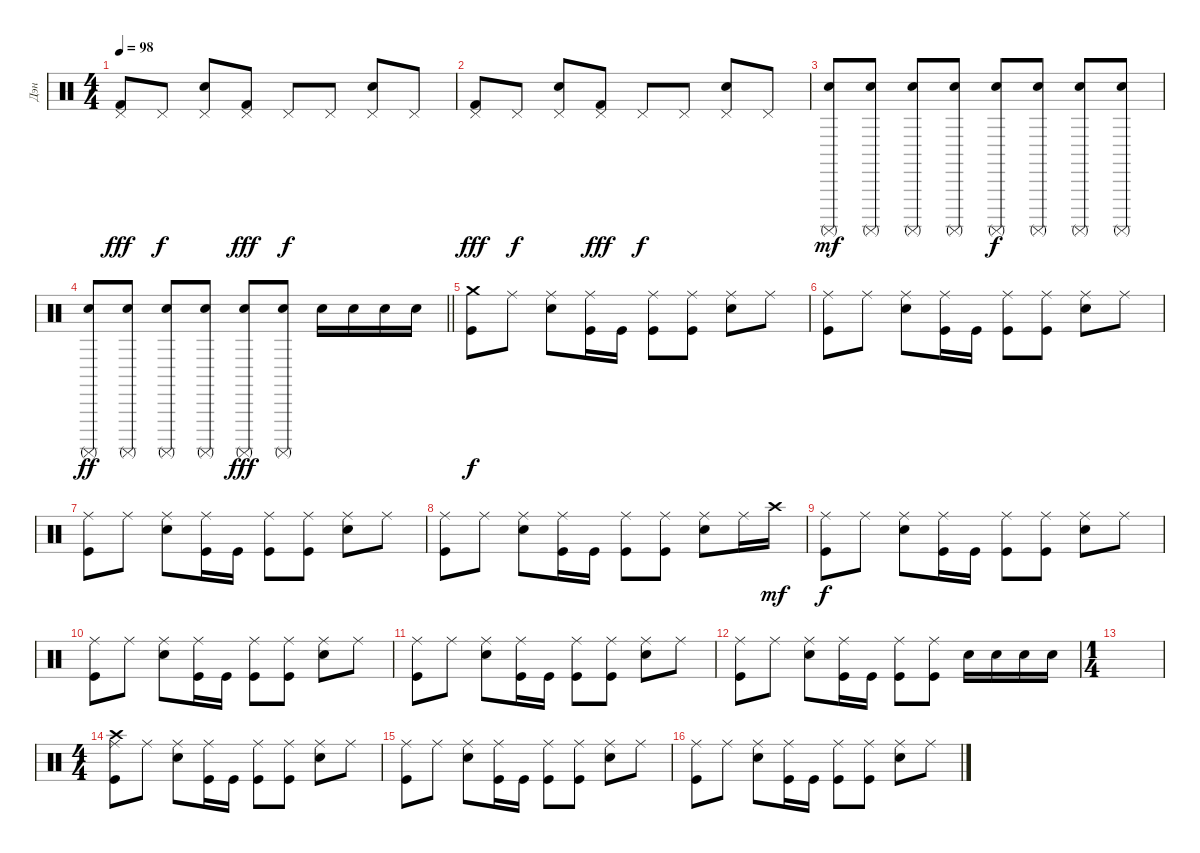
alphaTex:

\track ("Дэн" "Дэн") {instrument percussion}
\staff {score}
\articulation defaults
\ts (4 4)
\tempo 98
\clef neutral
\ks c
("Kick (hit) 2" "Pedal Hi-Hat (hit)").8{dy fff} "Pedal Hi-Hat (hit)".8{dy f} ("Electric Snare (hit)" "Pedal Hi-Hat (hit)").8 ("Kick (hit) 2" "Pedal Hi-Hat (hit)").8{dy fff} "Pedal Hi-Hat (hit)".8{dy f} "Pedal Hi-Hat (hit)".8 ("Electric Snare (hit)" "Pedal Hi-Hat (hit)").8 "Pedal Hi-Hat (hit)".8 |
("Kick (hit) 2" "Pedal Hi-Hat (hit)").8{dy fff} "Pedal Hi-Hat (hit)".8{dy f} ("Electric Snare (hit)" "Pedal Hi-Hat (hit)").8 ("Kick (hit) 2" "Pedal Hi-Hat (hit)").8{dy fff} "Pedal Hi-Hat (hit)".8{dy f} "Pedal Hi-Hat (hit)".8 ("Electric Snare (hit)" "Pedal Hi-Hat (hit)").8 "Pedal Hi-Hat (hit)".8 |
("Electric Snare (hit)" "Surdo (mute)").8{dy mf} ("Electric Snare (hit)" "Surdo (mute)").8 ("Electric Snare (hit)" "Surdo (mute)").8 ("Electric Snare (hit)" "Surdo (mute)").8 ("Electric Snare (hit)" "Surdo (mute)").8{dy f} ("Electric Snare (hit)" "Surdo (mute)").8 ("Electric Snare (hit)" "Surdo (mute)").8 ("Electric Snare (hit)" "Surdo (mute)").8 |
\barLineRight lightlight
("Electric Snare (hit)" "Surdo (mute)").8{dy ff} ("Electric Snare (hit)" "Surdo (mute)").8 ("Electric Snare (hit)" "Surdo (mute)").8 ("Electric Snare (hit)" "Surdo (mute)").8 ("Electric Snare (hit)" "Surdo (mute)").8{dy fff} ("Electric Snare (hit)" "Surdo (mute)").8 "Electric Snare (hit)".16 "Electric Snare (hit)".16 "Electric Snare (hit)".16 "Electric Snare (hit)".16 |
("Kick (hit)" "Crash medium (hit)").8{dy f} "Ride (middle)".8 ("Electric Snare (hit)" "Ride (middle)").8 ("Kick (hit)" "Ride (middle)").16 "Kick (hit)".16 ("Kick (hit)" "Ride (middle)").8 ("Kick (hit)" "Ride (middle)").8 ("Electric Snare (hit)" "Ride (middle)").8 "Ride (middle)".8 |
("Kick (hit)" "Ride (middle)").8 "Ride (middle)".8 ("Electric Snare (hit)" "Ride (middle)").8 ("Kick (hit)" "Ride (middle)").16 "Kick (hit)".16 ("Kick (hit)" "Ride (middle)").8 ("Kick (hit)" "Ride (middle)").8 ("Electric Snare (hit)" "Ride (middle)").8 "Ride (middle)".8 |
("Kick (hit)" "Ride (middle)").8 "Ride (middle)".8 ("Electric Snare (hit)" "Ride (middle)").8 ("Kick (hit)" "Ride (middle)").16 "Kick (hit)".16 ("Kick (hit)" "Ride (middle)").8 ("Kick (hit)" "Ride (middle)").8 ("Electric Snare (hit)" "Ride (middle)").8 "Ride (middle)".8 |
("Kick (hit)" "Ride (middle)").8 "Ride (middle)".8 ("Electric Snare (hit)" "Ride (middle)").8 ("Kick (hit)" "Ride (middle)").16 "Kick (hit)".16 ("Kick (hit)" "Ride (middle)").8 ("Kick (hit)" "Ride (middle)").8 ("Electric Snare (hit)" "Ride (middle)").8 "Ride (middle)".16 "Crash high (hit)".16{dy mf} |
("Kick (hit)" "Ride (middle)").8{dy f} "Ride (middle)".8 ("Electric Snare (hit)" "Ride (middle)").8 ("Kick (hit)" "Ride (middle)").16 "Kick (hit)".16 ("Kick (hit)" "Ride (middle)").8 ("Kick (hit)" "Ride (middle)").8 ("Electric Snare (hit)" "Ride (middle)").8 "Ride (middle)".8 |
("Kick (hit)" "Ride (middle)").8 "Ride (middle)".8 ("Electric Snare (hit)" "Ride (middle)").8 ("Kick (hit)" "Ride (middle)").16 "Kick (hit)".16 ("Kick (hit)" "Ride (middle)").8 ("Kick (hit)" "Ride (middle)").8 ("Electric Snare (hit)" "Ride (middle)").8 "Ride (middle)".8 |
("Kick (hit)" "Ride (middle)").8 "Ride (middle)".8 ("Electric Snare (hit)" "Ride (middle)").8 ("Kick (hit)" "Ride (middle)").16 "Kick (hit)".16 ("Kick (hit)" "Ride (middle)").8 ("Kick (hit)" "Ride (middle)").8 ("Electric Snare (hit)" "Ride (middle)").8 "Ride (middle)".8 |
("Kick (hit)" "Ride (middle)").8 "Ride (middle)".8 ("Electric Snare (hit)" "Ride (middle)").8 ("Kick (hit)" "Ride (middle)").16 "Kick (hit)".16 ("Kick (hit)" "Ride (middle)").8 ("Kick (hit)" "Ride (middle)").8 "Electric Snare (hit)".16 "Electric Snare (hit)".16 "Electric Snare (hit)".16 "Electric Snare (hit)".16 |
\ts (1 4)
|
\ts (4 4)
("Kick (hit)" "Crash high (hit)" "Ride (middle)").8 "Ride (middle)".8 ("Electric Snare (hit)" "Ride (middle)").8 ("Kick (hit)" "Ride (middle)").16 "Kick (hit)".16 ("Kick (hit)" "Ride (middle)").8 ("Kick (hit)" "Ride (middle)").8 ("Electric Snare (hit)" "Ride (middle)").8 "Ride (middle)".8 |
("Kick (hit)" "Ride (middle)").8 "Ride (middle)".8 ("Electric Snare (hit)" "Ride (middle)").8 ("Kick (hit)" "Ride (middle)").16 "Kick (hit)".16 ("Kick (hit)" "Ride (middle)").8 ("Kick (hit)" "Ride (middle)").8 ("Electric Snare (hit)" "Ride (middle)").8 "Ride (middle)".8 |
("Kick (hit)" "Ride (middle)").8 "Ride (middle)".8 ("Electric Snare (hit)" "Ride (middle)").8 ("Kick (hit)" "Ride (middle)").16 "Kick (hit)".16 ("Kick (hit)" "Ride (middle)").8 ("Kick (hit)" "Ride (middle)").8 ("Electric Snare (hit)" "Ride (middle)").8 "Ride (middle)".8
